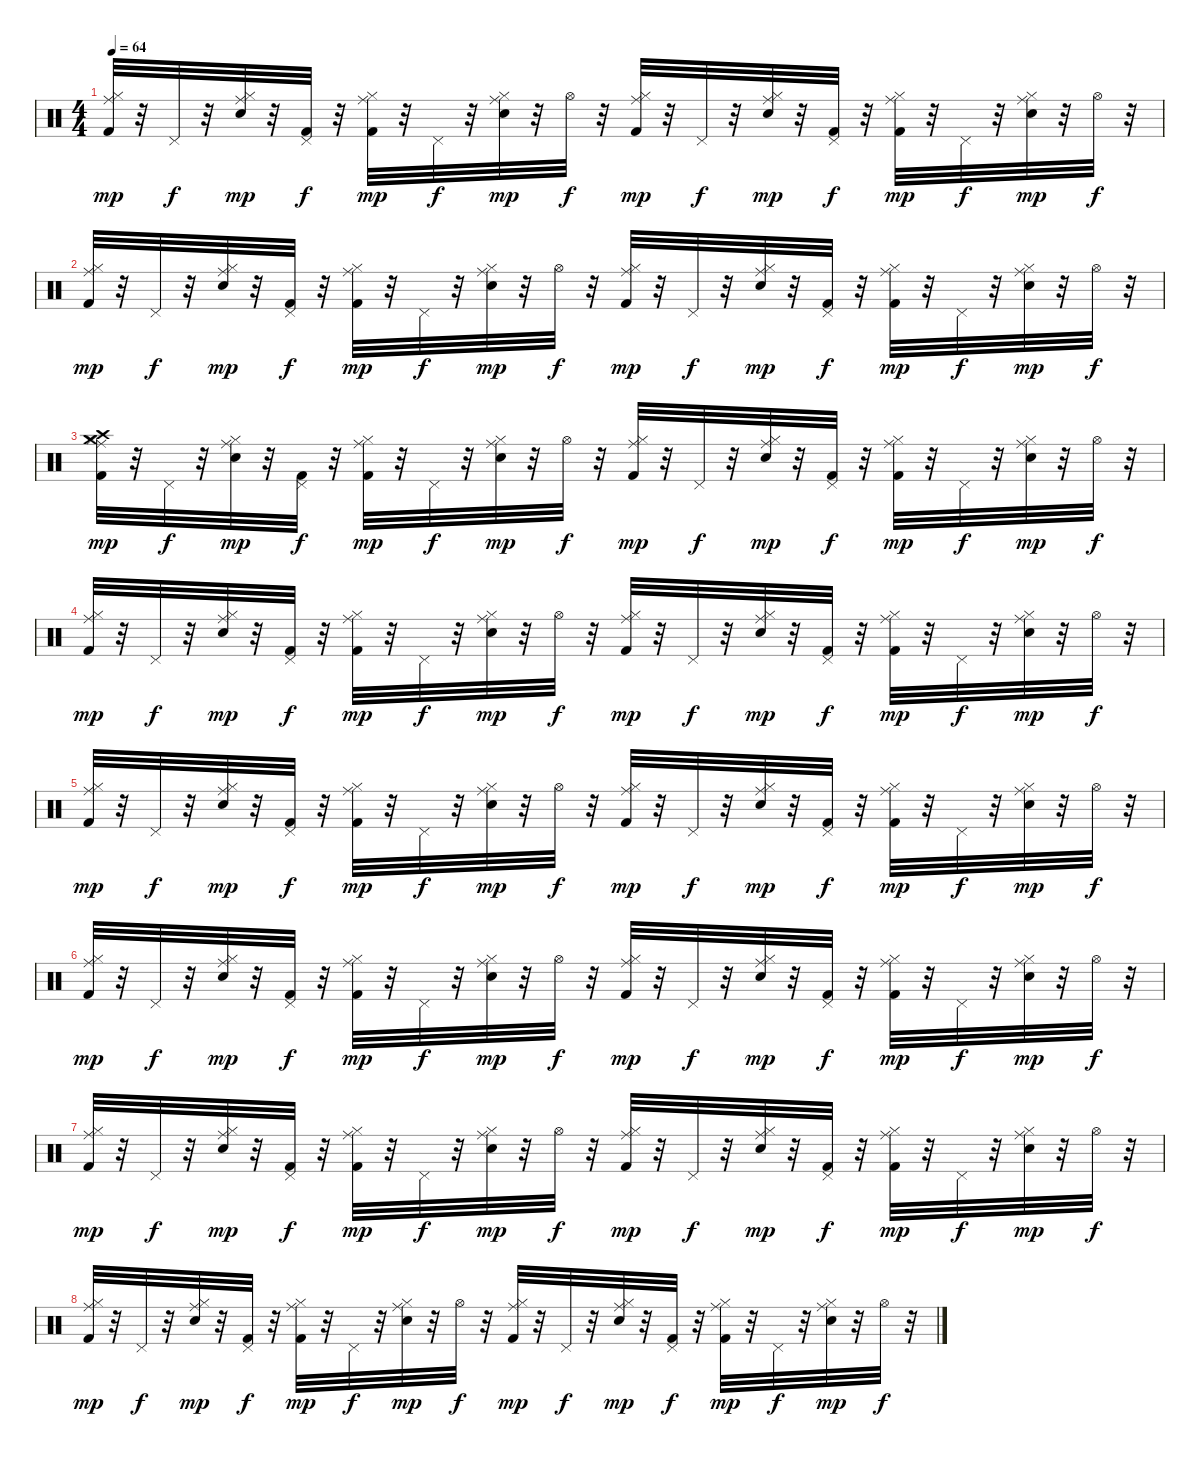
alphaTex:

\track "" {instrument percussion}
\staff {score}
\articulation defaults
\ts (4 4)
\tempo 64
\clef neutral
\ks c
("Ride (middle)" "Hi-Hat (closed)" "Kick (hit) 2").32{dy mp} r.32 "Pedal Hi-Hat (hit)".32{dy f} r.32 ("Ride (middle)" "Hi-Hat (closed)" "Snare (hit) 2").32{dy mp} r.32 ("Pedal Hi-Hat (hit)" "Kick (hit) 2").32{dy f} r.32 ("Ride (middle)" "Hi-Hat (closed)" "Kick (hit) 2").32{dy mp} r.32 "Pedal Hi-Hat (hit)".32{dy f} r.32 ("Snare (hit) 2" "Ride (middle)" "Hi-Hat (closed)").32{dy mp} r.32 "Hi-Hat (open)".32{dy f} r.32 ("Kick (hit) 2" "Hi-Hat (closed)" "Ride (middle)").32{dy mp} r.32 "Pedal Hi-Hat (hit)".32{dy f} r.32 ("Snare (hit) 2" "Hi-Hat (closed)" "Ride (middle)").32{dy mp} r.32 ("Kick (hit) 2" "Pedal Hi-Hat (hit)").32{dy f} r.32 ("Kick (hit) 2" "Hi-Hat (closed)" "Ride (middle)").32{dy mp} r.32 "Pedal Hi-Hat (hit)".32{dy f} r.32 ("Snare (hit) 2" "Hi-Hat (closed)" "Ride (middle)").32{dy mp} r.32 "Hi-Hat (open)".32{dy f} r.32 |
("Ride (middle)" "Hi-Hat (closed)" "Kick (hit) 2").32{dy mp} r.32 "Pedal Hi-Hat (hit)".32{dy f} r.32 ("Ride (middle)" "Hi-Hat (closed)" "Snare (hit) 2").32{dy mp} r.32 ("Pedal Hi-Hat (hit)" "Kick (hit) 2").32{dy f} r.32 ("Ride (middle)" "Hi-Hat (closed)" "Kick (hit) 2").32{dy mp} r.32 "Pedal Hi-Hat (hit)".32{dy f} r.32 ("Snare (hit) 2" "Ride (middle)" "Hi-Hat (closed)").32{dy mp} r.32 "Hi-Hat (open)".32{dy f} r.32 ("Kick (hit) 2" "Hi-Hat (closed)" "Ride (middle)").32{dy mp} r.32 "Pedal Hi-Hat (hit)".32{dy f} r.32 ("Snare (hit) 2" "Hi-Hat (closed)" "Ride (middle)").32{dy mp} r.32 ("Kick (hit) 2" "Pedal Hi-Hat (hit)").32{dy f} r.32 ("Kick (hit) 2" "Hi-Hat (closed)" "Ride (middle)").32{dy mp} r.32 "Pedal Hi-Hat (hit)".32{dy f} r.32 ("Snare (hit) 2" "Hi-Hat (closed)" "Ride (middle)").32{dy mp} r.32 "Hi-Hat (open)".32{dy f} r.32 |
("Crash medium (hit)" "Crash high (hit)" "Ride (middle)" "Hi-Hat (closed)" "Kick (hit) 2").32{dy mp} r.32 "Pedal Hi-Hat (hit)".32{dy f} r.32 ("Ride (middle)" "Hi-Hat (closed)" "Snare (hit) 2").32{dy mp} r.32 ("Pedal Hi-Hat (hit)" "Kick (hit) 2").32{dy f} r.32 ("Ride (middle)" "Hi-Hat (closed)" "Kick (hit) 2").32{dy mp} r.32 "Pedal Hi-Hat (hit)".32{dy f} r.32 ("Snare (hit) 2" "Ride (middle)" "Hi-Hat (closed)").32{dy mp} r.32 "Hi-Hat (open)".32{dy f} r.32 ("Kick (hit) 2" "Hi-Hat (closed)" "Ride (middle)").32{dy mp} r.32 "Pedal Hi-Hat (hit)".32{dy f} r.32 ("Snare (hit) 2" "Hi-Hat (closed)" "Ride (middle)").32{dy mp} r.32 ("Kick (hit) 2" "Pedal Hi-Hat (hit)").32{dy f} r.32 ("Kick (hit) 2" "Hi-Hat (closed)" "Ride (middle)").32{dy mp} r.32 "Pedal Hi-Hat (hit)".32{dy f} r.32 ("Snare (hit) 2" "Hi-Hat (closed)" "Ride (middle)").32{dy mp} r.32 "Hi-Hat (open)".32{dy f} r.32 |
("Ride (middle)" "Hi-Hat (closed)" "Kick (hit) 2").32{dy mp} r.32 "Pedal Hi-Hat (hit)".32{dy f} r.32 ("Ride (middle)" "Hi-Hat (closed)" "Snare (hit) 2").32{dy mp} r.32 ("Pedal Hi-Hat (hit)" "Kick (hit) 2").32{dy f} r.32 ("Ride (middle)" "Hi-Hat (closed)" "Kick (hit) 2").32{dy mp} r.32 "Pedal Hi-Hat (hit)".32{dy f} r.32 ("Snare (hit) 2" "Ride (middle)" "Hi-Hat (closed)").32{dy mp} r.32 "Hi-Hat (open)".32{dy f} r.32 ("Kick (hit) 2" "Hi-Hat (closed)" "Ride (middle)").32{dy mp} r.32 "Pedal Hi-Hat (hit)".32{dy f} r.32 ("Snare (hit) 2" "Hi-Hat (closed)" "Ride (middle)").32{dy mp} r.32 ("Kick (hit) 2" "Pedal Hi-Hat (hit)").32{dy f} r.32 ("Kick (hit) 2" "Hi-Hat (closed)" "Ride (middle)").32{dy mp} r.32 "Pedal Hi-Hat (hit)".32{dy f} r.32 ("Snare (hit) 2" "Hi-Hat (closed)" "Ride (middle)").32{dy mp} r.32 "Hi-Hat (open)".32{dy f} r.32 |
("Ride (middle)" "Hi-Hat (closed)" "Kick (hit) 2").32{dy mp} r.32 "Pedal Hi-Hat (hit)".32{dy f} r.32 ("Ride (middle)" "Hi-Hat (closed)" "Snare (hit) 2").32{dy mp} r.32 ("Pedal Hi-Hat (hit)" "Kick (hit) 2").32{dy f} r.32 ("Ride (middle)" "Hi-Hat (closed)" "Kick (hit) 2").32{dy mp} r.32 "Pedal Hi-Hat (hit)".32{dy f} r.32 ("Snare (hit) 2" "Ride (middle)" "Hi-Hat (closed)").32{dy mp} r.32 "Hi-Hat (open)".32{dy f} r.32 ("Kick (hit) 2" "Hi-Hat (closed)" "Ride (middle)").32{dy mp} r.32 "Pedal Hi-Hat (hit)".32{dy f} r.32 ("Snare (hit) 2" "Hi-Hat (closed)" "Ride (middle)").32{dy mp} r.32 ("Kick (hit) 2" "Pedal Hi-Hat (hit)").32{dy f} r.32 ("Kick (hit) 2" "Hi-Hat (closed)" "Ride (middle)").32{dy mp} r.32 "Pedal Hi-Hat (hit)".32{dy f} r.32 ("Snare (hit) 2" "Hi-Hat (closed)" "Ride (middle)").32{dy mp} r.32 "Hi-Hat (open)".32{dy f} r.32 |
("Ride (middle)" "Hi-Hat (closed)" "Kick (hit) 2").32{dy mp} r.32 "Pedal Hi-Hat (hit)".32{dy f} r.32 ("Ride (middle)" "Hi-Hat (closed)" "Snare (hit) 2").32{dy mp} r.32 ("Pedal Hi-Hat (hit)" "Kick (hit) 2").32{dy f} r.32 ("Ride (middle)" "Hi-Hat (closed)" "Kick (hit) 2").32{dy mp} r.32 "Pedal Hi-Hat (hit)".32{dy f} r.32 ("Snare (hit) 2" "Ride (middle)" "Hi-Hat (closed)").32{dy mp} r.32 "Hi-Hat (open)".32{dy f} r.32 ("Kick (hit) 2" "Hi-Hat (closed)" "Ride (middle)").32{dy mp} r.32 "Pedal Hi-Hat (hit)".32{dy f} r.32 ("Snare (hit) 2" "Hi-Hat (closed)" "Ride (middle)").32{dy mp} r.32 ("Kick (hit) 2" "Pedal Hi-Hat (hit)").32{dy f} r.32 ("Kick (hit) 2" "Hi-Hat (closed)" "Ride (middle)").32{dy mp} r.32 "Pedal Hi-Hat (hit)".32{dy f} r.32 ("Snare (hit) 2" "Hi-Hat (closed)" "Ride (middle)").32{dy mp} r.32 "Hi-Hat (open)".32{dy f} r.32 |
("Ride (middle)" "Hi-Hat (closed)" "Kick (hit) 2").32{dy mp} r.32 "Pedal Hi-Hat (hit)".32{dy f} r.32 ("Ride (middle)" "Hi-Hat (closed)" "Snare (hit) 2").32{dy mp} r.32 ("Pedal Hi-Hat (hit)" "Kick (hit) 2").32{dy f} r.32 ("Ride (middle)" "Hi-Hat (closed)" "Kick (hit) 2").32{dy mp} r.32 "Pedal Hi-Hat (hit)".32{dy f} r.32 ("Snare (hit) 2" "Ride (middle)" "Hi-Hat (closed)").32{dy mp} r.32 "Hi-Hat (open)".32{dy f} r.32 ("Kick (hit) 2" "Hi-Hat (closed)" "Ride (middle)").32{dy mp} r.32 "Pedal Hi-Hat (hit)".32{dy f} r.32 ("Snare (hit) 2" "Hi-Hat (closed)" "Ride (middle)").32{dy mp} r.32 ("Kick (hit) 2" "Pedal Hi-Hat (hit)").32{dy f} r.32 ("Kick (hit) 2" "Hi-Hat (closed)" "Ride (middle)").32{dy mp} r.32 "Pedal Hi-Hat (hit)".32{dy f} r.32 ("Snare (hit) 2" "Hi-Hat (closed)" "Ride (middle)").32{dy mp} r.32 "Hi-Hat (open)".32{dy f} r.32 |
("Ride (middle)" "Hi-Hat (closed)" "Kick (hit) 2").32{dy mp} r.32 "Pedal Hi-Hat (hit)".32{dy f} r.32 ("Ride (middle)" "Hi-Hat (closed)" "Snare (hit) 2").32{dy mp} r.32 ("Pedal Hi-Hat (hit)" "Kick (hit) 2").32{dy f} r.32 ("Ride (middle)" "Hi-Hat (closed)" "Kick (hit) 2").32{dy mp} r.32 "Pedal Hi-Hat (hit)".32{dy f} r.32 ("Snare (hit) 2" "Ride (middle)" "Hi-Hat (closed)").32{dy mp} r.32 "Hi-Hat (open)".32{dy f} r.32 ("Kick (hit) 2" "Hi-Hat (closed)" "Ride (middle)").32{dy mp} r.32 "Pedal Hi-Hat (hit)".32{dy f} r.32 ("Snare (hit) 2" "Hi-Hat (closed)" "Ride (middle)").32{dy mp} r.32 ("Kick (hit) 2" "Pedal Hi-Hat (hit)").32{dy f} r.32 ("Kick (hit) 2" "Hi-Hat (closed)" "Ride (middle)").32{dy mp} r.32 "Pedal Hi-Hat (hit)".32{dy f} r.32 ("Snare (hit) 2" "Hi-Hat (closed)" "Ride (middle)").32{dy mp} r.32 "Hi-Hat (open)".32{dy f} r.32
